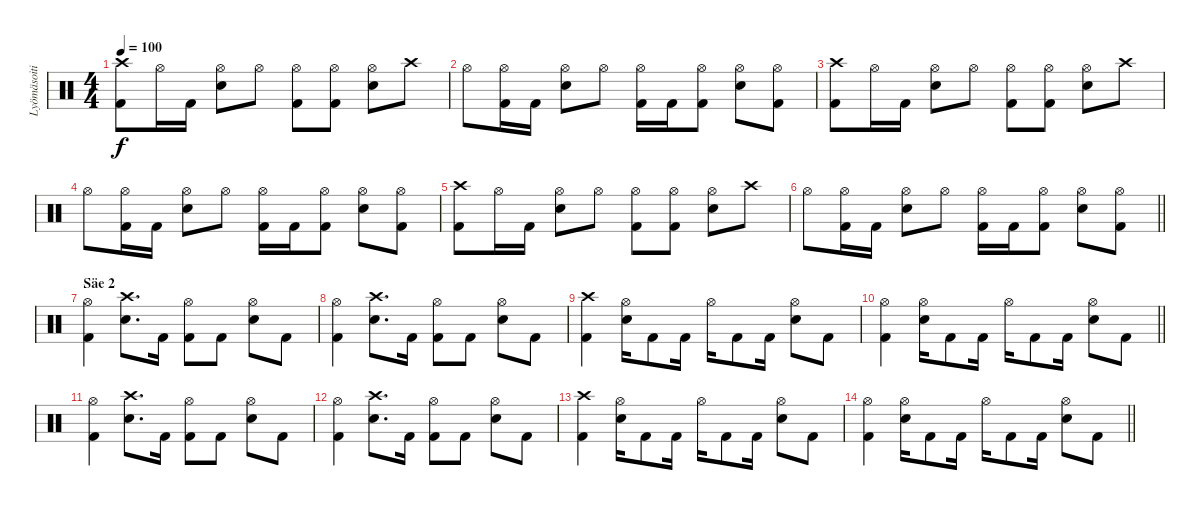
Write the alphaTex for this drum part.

\track ("Lyömäsoitin" "Lyömäsoiti") {instrument percussion}
\staff {score}
\articulation defaults
\ts (4 4)
\tempo 100
\clef neutral
\ks c
("Crash high (hit)" "Kick (hit) 2").8{dy f} "Hi-Hat (open)".16 "Kick (hit) 2".16 ("Hi-Hat (open)" "Snare (hit) 2").8 "Hi-Hat (open)".8 ("Hi-Hat (open)" "Kick (hit) 2").8 ("Hi-Hat (open)" "Kick (hit) 2").8 ("Hi-Hat (open)" "Snare (hit) 2").8 "Crash high (hit)".8 |
"Hi-Hat (open)".8 ("Hi-Hat (open)" "Kick (hit) 2").16 "Kick (hit) 2".16 ("Hi-Hat (open)" "Snare (hit) 2").8 "Hi-Hat (open)".8 ("Hi-Hat (open)" "Kick (hit) 2").16 "Kick (hit) 2".16 ("Hi-Hat (open)" "Kick (hit) 2").8 ("Hi-Hat (open)" "Snare (hit) 2").8 ("Hi-Hat (open)" "Kick (hit) 2").8 |
("Crash high (hit)" "Kick (hit) 2").8 "Hi-Hat (open)".16 "Kick (hit) 2".16 ("Hi-Hat (open)" "Snare (hit) 2").8 "Hi-Hat (open)".8 ("Hi-Hat (open)" "Kick (hit) 2").8 ("Hi-Hat (open)" "Kick (hit) 2").8 ("Hi-Hat (open)" "Snare (hit) 2").8 "Crash high (hit)".8 |
"Hi-Hat (open)".8 ("Hi-Hat (open)" "Kick (hit) 2").16 "Kick (hit) 2".16 ("Hi-Hat (open)" "Snare (hit) 2").8 "Hi-Hat (open)".8 ("Hi-Hat (open)" "Kick (hit) 2").16 "Kick (hit) 2".16 ("Hi-Hat (open)" "Kick (hit) 2").8 ("Hi-Hat (open)" "Snare (hit) 2").8 ("Hi-Hat (open)" "Kick (hit) 2").8 |
("Crash high (hit)" "Kick (hit) 2").8 "Hi-Hat (open)".16 "Kick (hit) 2".16 ("Hi-Hat (open)" "Snare (hit) 2").8 "Hi-Hat (open)".8 ("Hi-Hat (open)" "Kick (hit) 2").8 ("Hi-Hat (open)" "Kick (hit) 2").8 ("Hi-Hat (open)" "Snare (hit) 2").8 "Crash high (hit)".8 |
\barLineRight lightlight "Hi-Hat (open)".8
("Hi-Hat (open)" "Kick (hit) 2").16 "Kick (hit) 2".16 ("Hi-Hat (open)" "Snare (hit) 2").8 "Hi-Hat (open)".8 ("Hi-Hat (open)" "Kick (hit) 2").16 "Kick (hit) 2".16 ("Hi-Hat (open)" "Kick (hit) 2").8 ("Hi-Hat (open)" "Snare (hit) 2").8 ("Hi-Hat (open)" "Kick (hit) 2").8 |
\section ("" "Säe 2")
("Hi-Hat (open)" "Kick (hit) 2").4 ("Crash high (hit)" "Snare (hit) 2").8{d} "Kick (hit) 2".16 ("Hi-Hat (open)" "Kick (hit) 2").8 "Kick (hit) 2".8 ("Hi-Hat (open)" "Snare (hit) 2").8 "Kick (hit) 2".8 |
("Hi-Hat (open)" "Kick (hit) 2").4 ("Crash high (hit)" "Snare (hit) 2").8{d} "Kick (hit) 2".16 ("Hi-Hat (open)" "Kick (hit) 2").8 "Kick (hit) 2".8 ("Hi-Hat (open)" "Snare (hit) 2").8 "Kick (hit) 2".8 |
("Crash high (hit)" "Kick (hit) 2").4 ("Hi-Hat (open)" "Snare (hit) 2").16 "Kick (hit) 2".8 "Kick (hit) 2".16 "Hi-Hat (open)".16 "Kick (hit) 2".8 "Kick (hit) 2".16 ("Hi-Hat (open)" "Snare (hit) 2").8 "Kick (hit) 2".8 |
\barLineRight lightlight
("Hi-Hat (open)" "Kick (hit) 2").4 ("Hi-Hat (open)" "Snare (hit) 2").16 "Kick (hit) 2".8 "Kick (hit) 2".16 "Hi-Hat (open)".16 "Kick (hit) 2".8 "Kick (hit) 2".16 ("Hi-Hat (open)" "Snare (hit) 2").8 "Kick (hit) 2".8 |
("Hi-Hat (open)" "Kick (hit) 2").4 ("Crash high (hit)" "Snare (hit) 2").8{d} "Kick (hit) 2".16 ("Hi-Hat (open)" "Kick (hit) 2").8 "Kick (hit) 2".8 ("Hi-Hat (open)" "Snare (hit) 2").8 "Kick (hit) 2".8 |
("Hi-Hat (open)" "Kick (hit) 2").4 ("Crash high (hit)" "Snare (hit) 2").8{d} "Kick (hit) 2".16 ("Hi-Hat (open)" "Kick (hit) 2").8 "Kick (hit) 2".8 ("Hi-Hat (open)" "Snare (hit) 2").8 "Kick (hit) 2".8 |
("Crash high (hit)" "Kick (hit) 2").4 ("Hi-Hat (open)" "Snare (hit) 2").16 "Kick (hit) 2".8 "Kick (hit) 2".16 "Hi-Hat (open)".16 "Kick (hit) 2".8 "Kick (hit) 2".16 ("Hi-Hat (open)" "Snare (hit) 2").8 "Kick (hit) 2".8 |
\barLineRight lightlight
("Hi-Hat (open)" "Kick (hit) 2").4 ("Hi-Hat (open)" "Snare (hit) 2").16 "Kick (hit) 2".8 "Kick (hit) 2".16 "Hi-Hat (open)".16 "Kick (hit) 2".8 "Kick (hit) 2".16 ("Hi-Hat (open)" "Snare (hit) 2").8 "Kick (hit) 2".8
